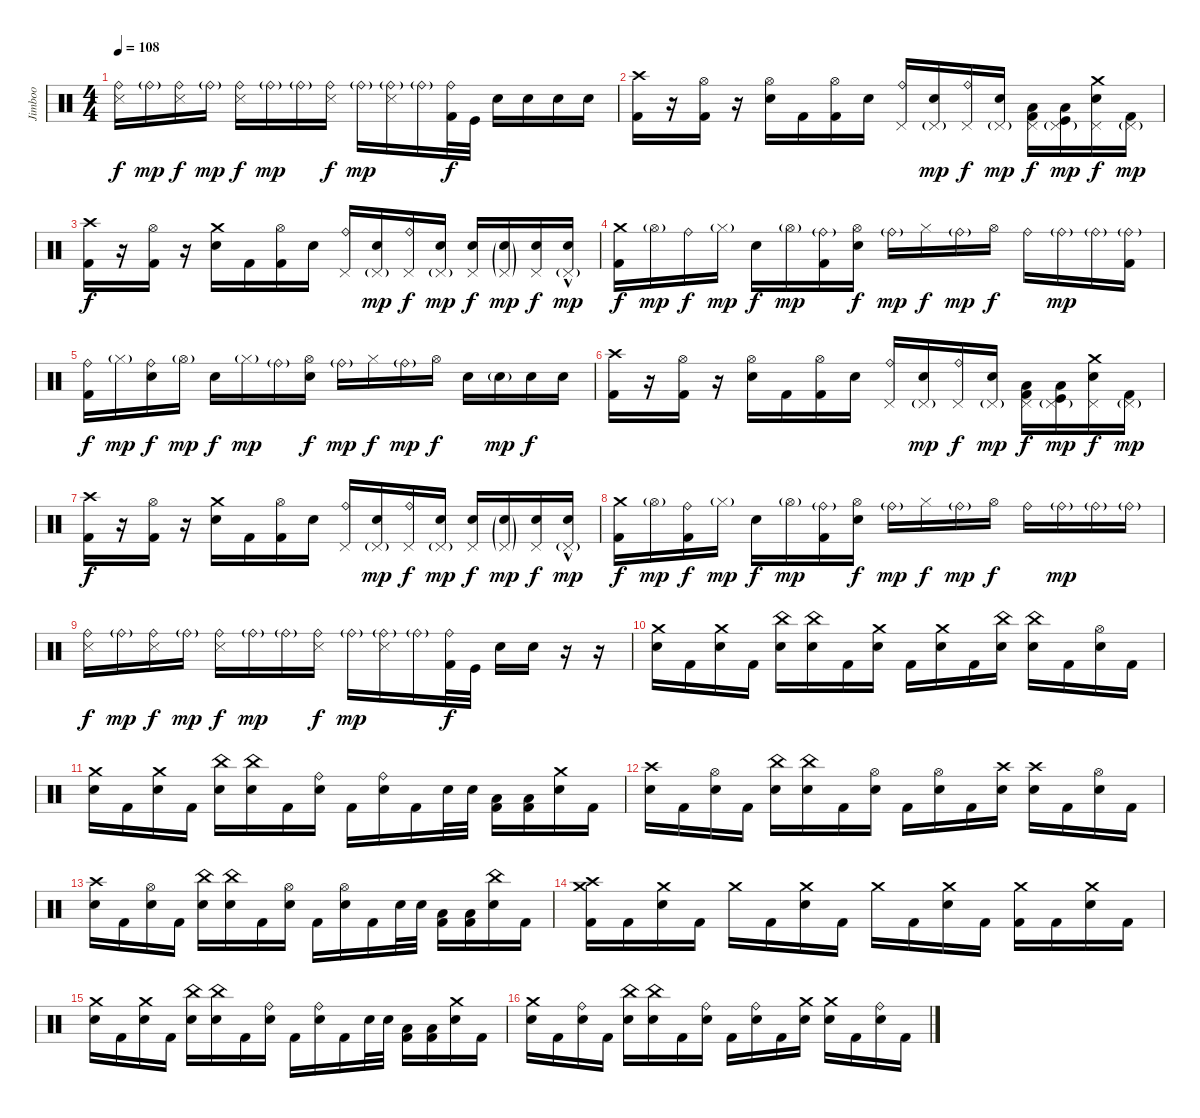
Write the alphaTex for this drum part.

\track ("Jimboo" "Jimboo") {instrument percussion}
\staff
\articulation defaults
\ts (4 4)
\tempo 108
\clef neutral
\ks c
("Ride (bell)" "Snare (side stick) 3").16{dy f} "Ride (bell)"{g}.16{dy mp} ("Ride (bell)" "Snare (side stick) 3").16{dy f} "Ride (bell)"{g}.16{dy mp} ("Ride (bell)" "Snare (side stick) 3").16{dy f} "Ride (bell)"{g}.16{dy mp} "Ride (bell)"{g}.16 ("Ride (bell)" "Snare (side stick) 3").16{dy f} "Ride (bell)"{g}.16{dy mp} ("Ride (bell)"{g} "Snare (side stick) 3").16 "Ride (bell)"{g}.16 ("Ride (bell)" "Kick (hit) 2").32{dy f} "Kick (hit)".32 "Electric Snare (hit)".16 "Electric Snare (hit)".16 "Electric Snare (hit)".16 "Electric Snare (hit)".16 |
("Kick (hit) 2" "Crash high (hit)").16 r.16 ("Kick (hit) 2" "Hi-Hat (open)").16 r.16 ("Electric Snare (hit)" "Hi-Hat (open)").16 "Kick (hit) 2".16 ("Kick (hit) 2" "Hi-Hat (open)").16 "Electric Snare (hit)".16 ("Ride (bell)" "Pedal Hi-Hat (hit)").16 ("Electric Snare (hit)" "Pedal Hi-Hat (hit)"{g}).16{dy mp} ("Ride (bell)" "Pedal Hi-Hat (hit)").16{dy f} ("Electric Snare (hit)" "Pedal Hi-Hat (hit)"{g}).16{dy mp} ("Low Tom (hit)" "Kick (hit) 2" "Pedal Hi-Hat (hit)").16{dy f} ("Low Floor Tom (hit)" "Kick (hit)" "Pedal Hi-Hat (hit)"{g}).16{dy mp} ("Electric Snare (hit)" "Crash medium (hit)" "Pedal Hi-Hat (hit)").16{dy f} ("Kick (hit) 2" "Pedal Hi-Hat (hit)"{g}).16{dy mp} |
("Kick (hit) 2" "Crash high (hit)").16{dy f} r.16 ("Kick (hit) 2" "Hi-Hat (open)").16 r.16 ("Electric Snare (hit)" "Crash medium (hit)").16 "Kick (hit) 2".16 ("Kick (hit) 2" "Hi-Hat (open)").16 "Electric Snare (hit)".16 ("Ride (bell)" "Pedal Hi-Hat (hit)").16 ("Electric Snare (hit)" "Pedal Hi-Hat (hit)"{g}).16{dy mp} ("Ride (bell)" "Pedal Hi-Hat (hit)").16{dy f} ("Electric Snare (hit)" "Pedal Hi-Hat (hit)"{g}).16{dy mp} ("Electric Snare (hit)" "Pedal Hi-Hat (hit)").16{dy f} ("Electric Snare (hit)"{g} "Pedal Hi-Hat (hit)"{g}).16{dy mp} ("Electric Snare (hit)" "Pedal Hi-Hat (hit)").16{dy f} ("Electric Snare (hit)"{hac} "Pedal Hi-Hat (hit)"{g}).16{dy mp} |
("Kick (hit) 2" "Crash medium (hit)").16{dy f} "Hi-Hat (open)"{g}.16{dy mp} "Ride (bell)".16{dy f} "Hi-Hat (closed)"{g}.16{dy mp} "Electric Snare (hit)".16{dy f} "Hi-Hat (open)"{g}.16{dy mp} ("Ride (bell)"{g} "Kick (hit) 2").16 ("Hi-Hat (open)" "Electric Snare (hit)").16{dy f} "Ride (bell)"{g}.16{dy mp} "Hi-Hat (closed)".16{dy f} "Ride (bell)"{g}.16{dy mp} "Hi-Hat (open)".16{dy f} "Ride (bell)".16 "Ride (bell)"{g}.16{dy mp} "Ride (bell)"{g}.16 ("Ride (bell)"{g} "Kick (hit) 2").16 |
("Ride (bell)" "Kick (hit) 2").16{dy f} "Hi-Hat (closed)"{g}.16{dy mp} ("Ride (bell)" "Electric Snare (hit)").16{dy f} "Hi-Hat (open)"{g}.16{dy mp} "Electric Snare (hit)".16{dy f} "Hi-Hat (closed)"{g}.16{dy mp} "Ride (bell)"{g}.16 ("Hi-Hat (open)" "Electric Snare (hit)").16{dy f} "Ride (bell)"{g}.16{dy mp} "Hi-Hat (closed)".16{dy f} "Ride (bell)"{g}.16{dy mp} "Hi-Hat (open)".16{dy f} "Electric Snare (hit)".16 "Electric Snare (hit)"{g}.16{dy mp} "Electric Snare (hit)".16{dy f} "Electric Snare (hit)".16 |
("Kick (hit) 2" "Crash high (hit)").16 r.16 ("Kick (hit) 2" "Hi-Hat (open)").16 r.16 ("Electric Snare (hit)" "Hi-Hat (open)").16 "Kick (hit) 2".16 ("Kick (hit) 2" "Hi-Hat (open)").16 "Electric Snare (hit)".16 ("Ride (bell)" "Pedal Hi-Hat (hit)").16 ("Electric Snare (hit)" "Pedal Hi-Hat (hit)"{g}).16{dy mp} ("Ride (bell)" "Pedal Hi-Hat (hit)").16{dy f} ("Electric Snare (hit)" "Pedal Hi-Hat (hit)"{g}).16{dy mp} ("Low Tom (hit)" "Kick (hit) 2" "Pedal Hi-Hat (hit)").16{dy f} ("Low Floor Tom (hit)" "Kick (hit)" "Pedal Hi-Hat (hit)"{g}).16{dy mp} ("Electric Snare (hit)" "Crash medium (hit)" "Pedal Hi-Hat (hit)").16{dy f} ("Kick (hit) 2" "Pedal Hi-Hat (hit)"{g}).16{dy mp} |
("Kick (hit) 2" "Crash high (hit)").16{dy f} r.16 ("Kick (hit) 2" "Hi-Hat (open)").16 r.16 ("Electric Snare (hit)" "Crash medium (hit)").16 "Kick (hit) 2".16 ("Kick (hit) 2" "Hi-Hat (open)").16 "Electric Snare (hit)".16 ("Ride (bell)" "Pedal Hi-Hat (hit)").16 ("Electric Snare (hit)" "Pedal Hi-Hat (hit)"{g}).16{dy mp} ("Ride (bell)" "Pedal Hi-Hat (hit)").16{dy f} ("Electric Snare (hit)" "Pedal Hi-Hat (hit)"{g}).16{dy mp} ("Electric Snare (hit)" "Pedal Hi-Hat (hit)").16{dy f} ("Electric Snare (hit)"{g} "Pedal Hi-Hat (hit)"{g}).16{dy mp} ("Electric Snare (hit)" "Pedal Hi-Hat (hit)").16{dy f} ("Electric Snare (hit)"{hac} "Pedal Hi-Hat (hit)"{g}).16{dy mp} |
("Kick (hit) 2" "Crash medium (hit)").16{dy f} "Hi-Hat (open)"{g}.16{dy mp} ("Ride (bell)" "Kick (hit) 2").16{dy f} "Hi-Hat (closed)"{g}.16{dy mp} "Electric Snare (hit)".16{dy f} "Hi-Hat (open)"{g}.16{dy mp} ("Ride (bell)"{g} "Kick (hit) 2").16 ("Hi-Hat (open)" "Electric Snare (hit)").16{dy f} "Ride (bell)"{g}.16{dy mp} "Hi-Hat (closed)".16{dy f} "Ride (bell)"{g}.16{dy mp} "Hi-Hat (open)".16{dy f} "Ride (bell)".16 "Ride (bell)"{g}.16{dy mp} "Ride (bell)"{g}.16 "Ride (bell)"{g}.16 |
("Ride (bell)" "Snare (side stick) 3").16{dy f} "Ride (bell)"{g}.16{dy mp} ("Ride (bell)" "Snare (side stick) 3").16{dy f} "Ride (bell)"{g}.16{dy mp} ("Ride (bell)" "Snare (side stick) 3").16{dy f} "Ride (bell)"{g}.16{dy mp} "Ride (bell)"{g}.16 ("Ride (bell)" "Snare (side stick) 3").16{dy f} "Ride (bell)"{g}.16{dy mp} ("Ride (bell)"{g} "Snare (side stick) 3").16 "Ride (bell)"{g}.16 ("Ride (bell)" "Kick (hit) 2").32{dy f} "Kick (hit)".32 "Electric Snare (hit)".16 "Electric Snare (hit)".16 r.16 r.16 |
("Electric Snare (hit)" "Crash medium (hit)").16 "Kick (hit) 2".16 ("Electric Snare (hit)" "Crash medium (hit)").16 "Kick (hit) 2".16 ("Electric Snare (hit)" "China (hit)").16 ("Electric Snare (hit)" "China (hit)").16 "Kick (hit) 2".16 ("Electric Snare (hit)" "Crash medium (hit)").16 "Kick (hit) 2".16 ("Electric Snare (hit)" "Crash medium (hit)").16 "Kick (hit) 2".16 ("Electric Snare (hit)" "China (hit)").16 ("Electric Snare (hit)" "China (hit)").16 "Kick (hit) 2".16 ("Electric Snare (hit)" "Hi-Hat (open)").16 "Kick (hit) 2".16 |
("Electric Snare (hit)" "Crash medium (hit)").16 "Kick (hit) 2".16 ("Electric Snare (hit)" "Crash medium (hit)").16 "Kick (hit) 2".16 ("Electric Snare (hit)" "China (hit)").16 ("Electric Snare (hit)" "China (hit)").16 "Kick (hit) 2".16 ("Electric Snare (hit)" "Ride (bell)").16 "Kick (hit) 2".16 ("Electric Snare (hit)" "Ride (bell)").16 "Kick (hit) 2".16 "Electric Snare (hit)".32 "Electric Snare (hit)".32 ("Kick (hit) 2" "Low Tom (hit)").16 ("Kick (hit) 2" "Low Floor Tom (hit)").16 ("Electric Snare (hit)" "Crash medium (hit)").16 "Kick (hit) 2".16 |
("Electric Snare (hit)" "Crash high (hit)").16 "Kick (hit) 2".16 ("Electric Snare (hit)" "Hi-Hat (open)").16 "Kick (hit) 2".16 ("Electric Snare (hit)" "China (hit)").16 ("Electric Snare (hit)" "China (hit)").16 "Kick (hit) 2".16 ("Electric Snare (hit)" "Hi-Hat (open)").16 "Kick (hit) 2".16 ("Electric Snare (hit)" "Hi-Hat (open)").16 "Kick (hit) 2".16 ("Electric Snare (hit)" "Crash high (hit)").16 ("Electric Snare (hit)" "Crash high (hit)").16 "Kick (hit) 2".16 ("Electric Snare (hit)" "Hi-Hat (open)").16 "Kick (hit) 2".16 |
("Electric Snare (hit)" "Crash high (hit)").16 "Kick (hit) 2".16 ("Electric Snare (hit)" "Hi-Hat (open)").16 "Kick (hit) 2".16 ("Electric Snare (hit)" "China (hit)").16 ("Electric Snare (hit)" "China (hit)").16 "Kick (hit) 2".16 ("Electric Snare (hit)" "Hi-Hat (open)").16 "Kick (hit) 2".16 ("Electric Snare (hit)" "Hi-Hat (open)").16 "Kick (hit) 2".16 "Electric Snare (hit)".32 "Electric Snare (hit)".32 ("Kick (hit) 2" "Low Tom (hit)").16 ("Kick (hit) 2" "Low Floor Tom (hit)").16 ("Electric Snare (hit)" "China (hit)").16 "Kick (hit) 2".16 |
("Kick (hit) 2" "Crash medium (hit)" "Crash high (hit)").16 "Kick (hit) 2".16 ("Electric Snare (hit)" "Crash medium (hit)").16 "Kick (hit) 2".16 "Crash medium (hit)".16 "Kick (hit) 2".16 ("Electric Snare (hit)" "Crash medium (hit)").16 "Kick (hit) 2".16 "Crash medium (hit)".16 "Kick (hit) 2".16 ("Electric Snare (hit)" "Crash medium (hit)").16 "Kick (hit) 2".16 ("Kick (hit) 2" "Crash medium (hit)").16 "Kick (hit) 2".16 ("Electric Snare (hit)" "Crash medium (hit)").16 "Kick (hit) 2".16 |
("Electric Snare (hit)" "Crash medium (hit)").16 "Kick (hit) 2".16 ("Electric Snare (hit)" "Crash medium (hit)").16 "Kick (hit) 2".16 ("Electric Snare (hit)" "China (hit)").16 ("Electric Snare (hit)" "China (hit)").16 "Kick (hit) 2".16 ("Electric Snare (hit)" "Ride (bell)").16 "Kick (hit) 2".16 ("Electric Snare (hit)" "Ride (bell)").16 "Kick (hit) 2".16 "Electric Snare (hit)".32 "Electric Snare (hit)".32 ("Kick (hit) 2" "Low Tom (hit)").16 ("Kick (hit) 2" "Low Floor Tom (hit)").16 ("Electric Snare (hit)" "Crash medium (hit)").16 "Kick (hit) 2".16 |
("Electric Snare (hit)" "Crash medium (hit)").16 "Kick (hit) 2".16 ("Electric Snare (hit)" "Ride (bell)").16 "Kick (hit) 2".16 ("Electric Snare (hit)" "China (hit)").16 ("Electric Snare (hit)" "China (hit)").16 "Kick (hit) 2".16 ("Electric Snare (hit)" "Ride (bell)").16 "Kick (hit) 2".16 ("Electric Snare (hit)" "Ride (bell)").16 "Kick (hit) 2".16 ("Electric Snare (hit)" "Crash medium (hit)").16 ("Electric Snare (hit)" "Crash medium (hit)").16 "Kick (hit) 2".16 ("Electric Snare (hit)" "Ride (bell)").16 "Kick (hit) 2".16
